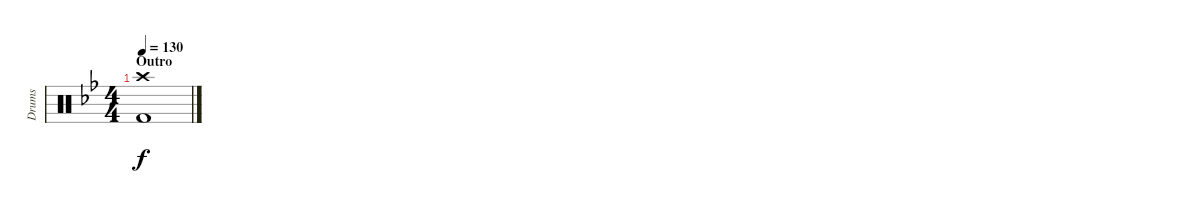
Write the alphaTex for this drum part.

\track ("Drums" "Drums") {instrument percussion}
\staff {score}
\articulation defaults
\ts (4 4)
\section ("" "Outro")
\tempo 130
\clef neutral
\ks bb
("Crash high (hit)" "Kick (hit) 2").1{dy f}
